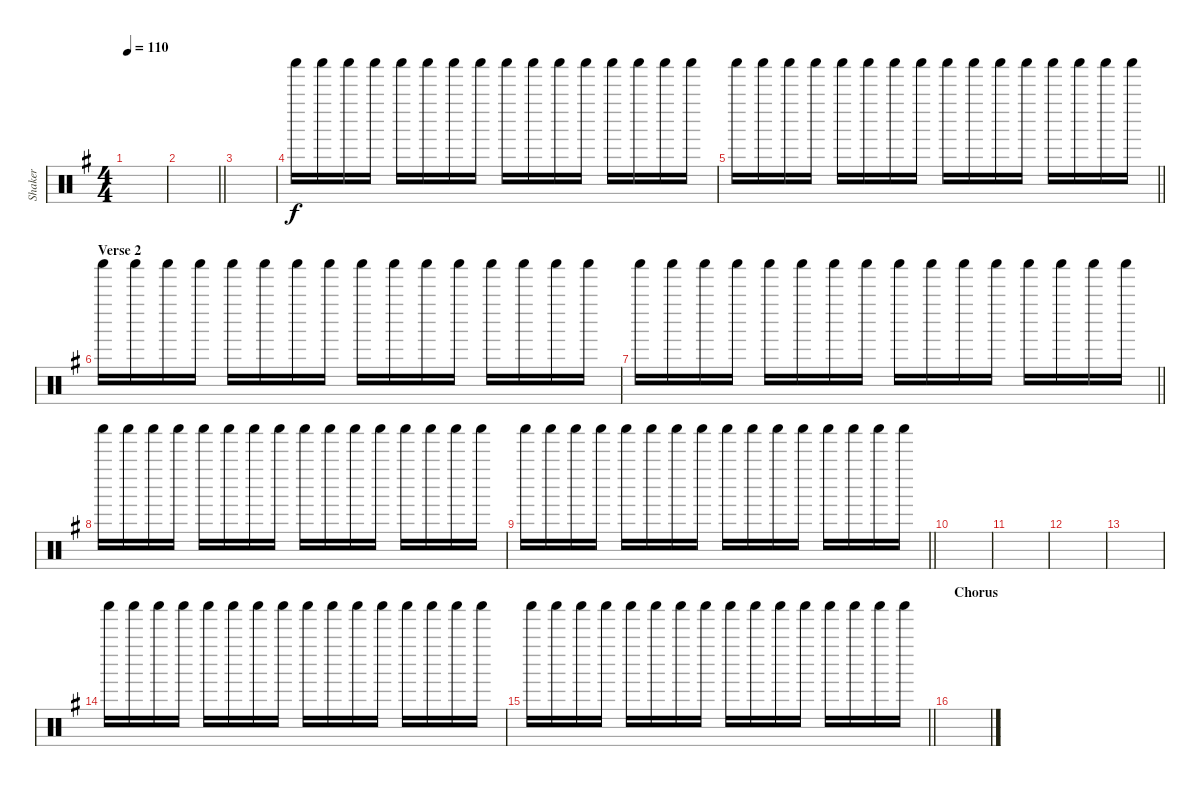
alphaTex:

\track ("Shaker" "Shaker") {instrument percussion}
\staff {score}
\articulation defaults
\ts (4 4)
\tempo 110
\clef neutral
\ks g
|
\barLineRight lightlight
|
|
"Shaker (hit)".16 "Shaker (hit)".16 "Shaker (hit)".16 "Shaker (hit)".16 "Shaker (hit)".16 "Shaker (hit)".16 "Shaker (hit)".16 "Shaker (hit)".16 "Shaker (hit)".16 "Shaker (hit)".16 "Shaker (hit)".16 "Shaker (hit)".16 "Shaker (hit)".16 "Shaker (hit)".16 "Shaker (hit)".16 "Shaker (hit)".16 |
\barLineRight lightlight "Shaker (hit)".16 "Shaker (hit)".16 "Shaker (hit)".16 "Shaker (hit)".16 "Shaker (hit)".16 "Shaker (hit)".16 "Shaker (hit)".16 "Shaker (hit)".16 "Shaker (hit)".16 "Shaker (hit)".16 "Shaker (hit)".16 "Shaker (hit)".16 "Shaker (hit)".16 "Shaker (hit)".16 "Shaker (hit)".16 "Shaker (hit)".16
|
\section ("" "Verse 2")
"Shaker (hit)".16 "Shaker (hit)".16 "Shaker (hit)".16 "Shaker (hit)".16 "Shaker (hit)".16 "Shaker (hit)".16 "Shaker (hit)".16 "Shaker (hit)".16 "Shaker (hit)".16 "Shaker (hit)".16 "Shaker (hit)".16 "Shaker (hit)".16 "Shaker (hit)".16 "Shaker (hit)".16 "Shaker (hit)".16 "Shaker (hit)".16 |
\barLineRight lightlight "Shaker (hit)".16 "Shaker (hit)".16 "Shaker (hit)".16 "Shaker (hit)".16 "Shaker (hit)".16 "Shaker (hit)".16 "Shaker (hit)".16 "Shaker (hit)".16 "Shaker (hit)".16 "Shaker (hit)".16 "Shaker (hit)".16 "Shaker (hit)".16 "Shaker (hit)".16 "Shaker (hit)".16 "Shaker (hit)".16 "Shaker (hit)".16
|
"Shaker (hit)".16 "Shaker (hit)".16 "Shaker (hit)".16 "Shaker (hit)".16 "Shaker (hit)".16 "Shaker (hit)".16 "Shaker (hit)".16 "Shaker (hit)".16 "Shaker (hit)".16 "Shaker (hit)".16 "Shaker (hit)".16 "Shaker (hit)".16 "Shaker (hit)".16 "Shaker (hit)".16 "Shaker (hit)".16 "Shaker (hit)".16 |
\barLineRight lightlight "Shaker (hit)".16 "Shaker (hit)".16 "Shaker (hit)".16 "Shaker (hit)".16 "Shaker (hit)".16 "Shaker (hit)".16 "Shaker (hit)".16 "Shaker (hit)".16 "Shaker (hit)".16 "Shaker (hit)".16 "Shaker (hit)".16 "Shaker (hit)".16 "Shaker (hit)".16 "Shaker (hit)".16 "Shaker (hit)".16 "Shaker (hit)".16
|
|
|
|
|
"Shaker (hit)".16 "Shaker (hit)".16 "Shaker (hit)".16 "Shaker (hit)".16 "Shaker (hit)".16 "Shaker (hit)".16 "Shaker (hit)".16 "Shaker (hit)".16 "Shaker (hit)".16 "Shaker (hit)".16 "Shaker (hit)".16 "Shaker (hit)".16 "Shaker (hit)".16 "Shaker (hit)".16 "Shaker (hit)".16 "Shaker (hit)".16 |
\barLineRight lightlight "Shaker (hit)".16 "Shaker (hit)".16 "Shaker (hit)".16 "Shaker (hit)".16 "Shaker (hit)".16 "Shaker (hit)".16 "Shaker (hit)".16 "Shaker (hit)".16 "Shaker (hit)".16 "Shaker (hit)".16 "Shaker (hit)".16 "Shaker (hit)".16 "Shaker (hit)".16 "Shaker (hit)".16 "Shaker (hit)".16 "Shaker (hit)".16
|
\section ("" "Chorus")
